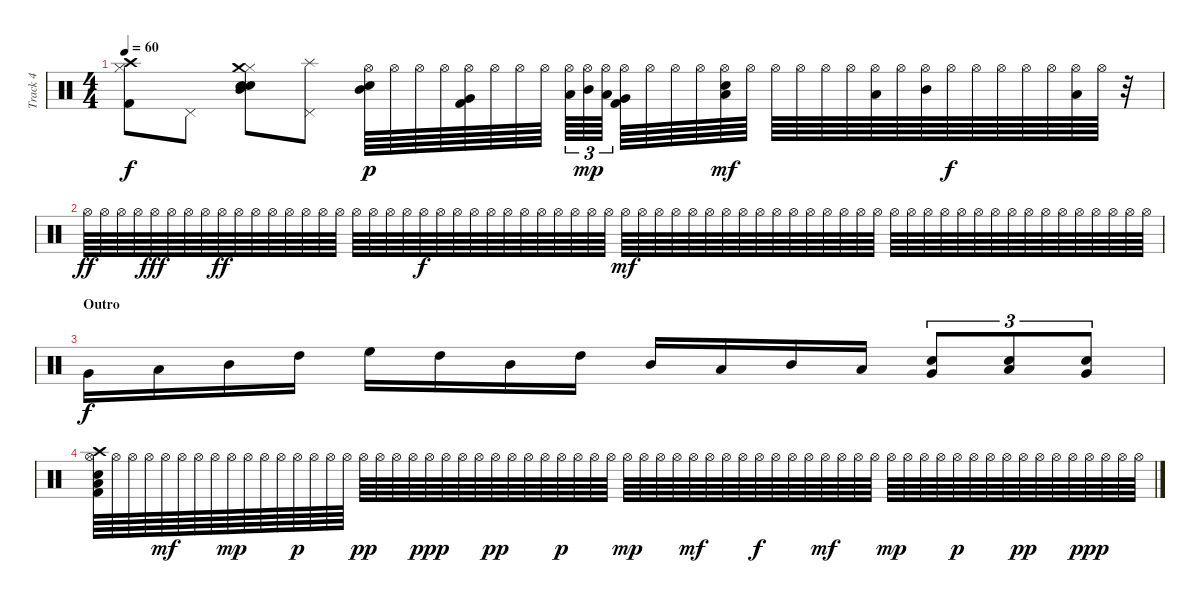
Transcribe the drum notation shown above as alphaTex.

\track ("Track 4" "Track 4") {instrument percussion}
\staff {score}
\articulation defaults
\ts (4 4)
\tempo 60
\clef neutral
\ks c
("Kick (hit) 2" "Hi-Hat (closed)" "Crash high (hit)").8{dy f} "Pedal Hi-Hat (hit)".8 ("Mid Tom (hit)" "Snare (hit) 2" "Electric Snare (hit)" "Hi-Hat (closed)" "Crash medium (hit)").8 ("Pedal Hi-Hat (hit)" "Splash (hit)").8 ("Mid Tom (hit)" "Electric Snare (hit)" "Hi-Hat (open)").64{dy p} "Hi-Hat (open)".64 "Hi-Hat (open)".64 "Hi-Hat (open)".64 ("Kick (hit) 2" "Very Low Tom (hit)" "Hi-Hat (open)").64 "Hi-Hat (open)".64 "Hi-Hat (open)".64 "Hi-Hat (open)".64 ("Low Tom (hit)" "Hi-Hat (open)").64{tu (3 2)} ("Mid Tom (hit)" "Hi-Hat (open)").64{tu (3 2) dy mp} ("Low Tom (hit)" "Hi-Hat (open)").64{tu (3 2)} ("Kick (hit) 2" "Very Low Tom (hit)" "Hi-Hat (open)").64 "Hi-Hat (open)".64 "Hi-Hat (open)".64 "Hi-Hat (open)".64 ("Low Tom (hit)" "Electric Snare (hit)" "Hi-Hat (open)").64{dy mf} "Hi-Hat (open)".64 "Hi-Hat (open)".64 "Hi-Hat (open)".64 "Hi-Hat (open)".64 "Hi-Hat (open)".64 ("Low Tom (hit)" "Hi-Hat (open)").64 "Hi-Hat (open)".64 ("Mid Tom (hit)" "Hi-Hat (open)").64 "Hi-Hat (open)".64{dy f} "Hi-Hat (open)".64 "Hi-Hat (open)".64 "Hi-Hat (open)".64 "Hi-Hat (open)".64 ("Low Tom (hit)" "Hi-Hat (open)").64 "Hi-Hat (open)".64 r.32 |
"Hi-Hat (open)".64{dy ff} "Hi-Hat (open)".64 "Hi-Hat (open)".64 "Hi-Hat (open)".64 "Hi-Hat (open)".64{dy fff} "Hi-Hat (open)".64 "Hi-Hat (open)".64 "Hi-Hat (open)".64 "Hi-Hat (open)".64{dy ff} "Hi-Hat (open)".64 "Hi-Hat (open)".64 "Hi-Hat (open)".64 "Hi-Hat (open)".64 "Hi-Hat (open)".64 "Hi-Hat (open)".64 "Hi-Hat (open)".64 "Hi-Hat (open)".64 "Hi-Hat (open)".64 "Hi-Hat (open)".64 "Hi-Hat (open)".64 "Hi-Hat (open)".64{dy f} "Hi-Hat (open)".64 "Hi-Hat (open)".64 "Hi-Hat (open)".64 "Hi-Hat (open)".64 "Hi-Hat (open)".64 "Hi-Hat (open)".64 "Hi-Hat (open)".64 "Hi-Hat (open)".64 "Hi-Hat (open)".64 "Hi-Hat (open)".64 "Hi-Hat (open)".64 "Hi-Hat (open)".64{dy mf} "Hi-Hat (open)".64 "Hi-Hat (open)".64 "Hi-Hat (open)".64 "Hi-Hat (open)".64 "Hi-Hat (open)".64 "Hi-Hat (open)".64 "Hi-Hat (open)".64 "Hi-Hat (open)".64 "Hi-Hat (open)".64 "Hi-Hat (open)".64 "Hi-Hat (open)".64 "Hi-Hat (open)".64 "Hi-Hat (open)".64 "Hi-Hat (open)".64 "Hi-Hat (open)".64 "Hi-Hat (open)".64 "Hi-Hat (open)".64 "Hi-Hat (open)".64 "Hi-Hat (open)".64 "Hi-Hat (open)".64 "Hi-Hat (open)".64 "Hi-Hat (open)".64 "Hi-Hat (open)".64 "Hi-Hat (open)".64 "Hi-Hat (open)".64 "Hi-Hat (open)".64 "Hi-Hat (open)".64 "Hi-Hat (open)".64 "Hi-Hat (open)".64 "Hi-Hat (open)".64 "Hi-Hat (open)".64 |
\section ("" "Outro")
"Very Low Tom (hit)".16{dy f} "Low Tom (hit)".16 "Mid Tom (hit)".16 "High Tom (hit)".16 "High Floor Tom (hit)".16 "High Tom (hit)".16 "Mid Tom (hit)".16 "High Tom (hit)".16 "Mid Tom (hit)".16 "Low Tom (hit)".16 "Mid Tom (hit)".16 "Low Tom (hit)".16 ("Very Low Tom (hit)" "Snare (hit) 2").8{tu (3 2)} ("Low Floor Tom (hit)" "Snare (hit) 2").8{tu (3 2)} ("Very Low Tom (hit)" "Snare (hit) 2").8{tu (3 2)} |
("Hi-Hat (open)" "Kick (hit) 2" "Snare (hit) 2" "Low Tom (hit)" "Crash high (hit)").64 "Hi-Hat (open)".64 "Hi-Hat (open)".64 "Hi-Hat (open)".64 "Hi-Hat (open)".64{dy mf} "Hi-Hat (open)".64 "Hi-Hat (open)".64 "Hi-Hat (open)".64 "Hi-Hat (open)".64{dy mp} "Hi-Hat (open)".64 "Hi-Hat (open)".64 "Hi-Hat (open)".64 "Hi-Hat (open)".64{dy p} "Hi-Hat (open)".64 "Hi-Hat (open)".64 "Hi-Hat (open)".64 "Hi-Hat (open)".64{dy pp} "Hi-Hat (open)".64 "Hi-Hat (open)".64 "Hi-Hat (open)".64 "Hi-Hat (open)".64{dy ppp} "Hi-Hat (open)".64 "Hi-Hat (open)".64 "Hi-Hat (open)".64 "Hi-Hat (open)".64{dy pp} "Hi-Hat (open)".64 "Hi-Hat (open)".64 "Hi-Hat (open)".64 "Hi-Hat (open)".64{dy p} "Hi-Hat (open)".64 "Hi-Hat (open)".64 "Hi-Hat (open)".64 "Hi-Hat (open)".64{dy mp} "Hi-Hat (open)".64 "Hi-Hat (open)".64 "Hi-Hat (open)".64 "Hi-Hat (open)".64{dy mf} "Hi-Hat (open)".64 "Hi-Hat (open)".64 "Hi-Hat (open)".64 "Hi-Hat (open)".64{dy f} "Hi-Hat (open)".64 "Hi-Hat (open)".64 "Hi-Hat (open)".64 "Hi-Hat (open)".64{dy mf} "Hi-Hat (open)".64 "Hi-Hat (open)".64 "Hi-Hat (open)".64 "Hi-Hat (open)".64{dy mp} "Hi-Hat (open)".64 "Hi-Hat (open)".64 "Hi-Hat (open)".64 "Hi-Hat (open)".64{dy p} "Hi-Hat (open)".64 "Hi-Hat (open)".64 "Hi-Hat (open)".64 "Hi-Hat (open)".64{dy pp} "Hi-Hat (open)".64 "Hi-Hat (open)".64 "Hi-Hat (open)".64 "Hi-Hat (open)".64{dy ppp} "Hi-Hat (open)".64 "Hi-Hat (open)".64 "Hi-Hat (open)".64
